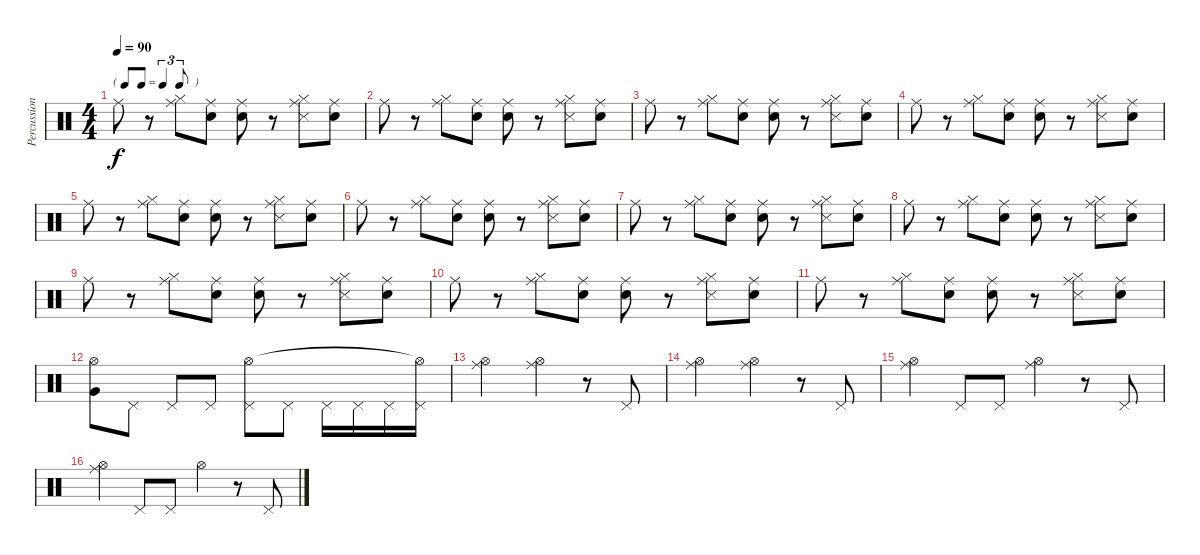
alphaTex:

\track ("Percussion" "Percussion") {instrument percussion}
\staff {score}
\articulation defaults
\ts (4 4)
\tf triplet8th
\tempo 90
\clef neutral
\ks c "Ride (middle)".8{dy f}
r.8 ("Hi-Hat (closed)" "Ride (middle)").8 ("Snare (hit)" "Ride (middle)").8 ("Snare (hit)" "Ride (middle)").8 r.8 ("Hi-Hat (closed)" "Snare (side stick) 3" "Ride (middle)").8 ("Snare (hit)" "Ride (middle)").8 |
"Ride (middle)".8 r.8 ("Hi-Hat (closed)" "Ride (middle)").8 ("Snare (hit)" "Ride (middle)").8 ("Snare (hit)" "Ride (middle)").8 r.8 ("Hi-Hat (closed)" "Snare (side stick) 3" "Ride (middle)").8 ("Snare (hit)" "Ride (middle)").8 |
"Ride (middle)".8 r.8 ("Hi-Hat (closed)" "Ride (middle)").8 ("Snare (hit)" "Ride (middle)").8 ("Snare (hit)" "Ride (middle)").8 r.8 ("Hi-Hat (closed)" "Snare (side stick) 3" "Ride (middle)").8 ("Snare (hit)" "Ride (middle)").8 |
"Ride (middle)".8 r.8 ("Hi-Hat (closed)" "Ride (middle)").8 ("Snare (hit)" "Ride (middle)").8 ("Snare (hit)" "Ride (middle)").8 r.8 ("Hi-Hat (closed)" "Snare (side stick) 3" "Ride (middle)").8 ("Snare (hit)" "Ride (middle)").8 |
"Ride (middle)".8 r.8 ("Hi-Hat (closed)" "Ride (middle)").8 ("Snare (hit)" "Ride (middle)").8 ("Snare (hit)" "Ride (middle)").8 r.8 ("Hi-Hat (closed)" "Snare (side stick) 3" "Ride (middle)").8 ("Snare (hit)" "Ride (middle)").8 |
"Ride (middle)".8 r.8 ("Hi-Hat (closed)" "Ride (middle)").8 ("Snare (hit)" "Ride (middle)").8 ("Snare (hit)" "Ride (middle)").8 r.8 ("Hi-Hat (closed)" "Snare (side stick) 3" "Ride (middle)").8 ("Snare (hit)" "Ride (middle)").8 |
"Ride (middle)".8 r.8 ("Hi-Hat (closed)" "Ride (middle)").8 ("Snare (hit)" "Ride (middle)").8 ("Snare (hit)" "Ride (middle)").8 r.8 ("Hi-Hat (closed)" "Snare (side stick) 3" "Ride (middle)").8 ("Snare (hit)" "Ride (middle)").8 |
"Ride (middle)".8 r.8 ("Hi-Hat (closed)" "Ride (middle)").8 ("Snare (hit)" "Ride (middle)").8 ("Snare (hit)" "Ride (middle)").8 r.8 ("Hi-Hat (closed)" "Snare (side stick) 3" "Ride (middle)").8 ("Snare (hit)" "Ride (middle)").8 |
"Ride (middle)".8 r.8 ("Hi-Hat (closed)" "Ride (middle)").8 ("Snare (hit)" "Ride (middle)").8 ("Snare (hit)" "Ride (middle)").8 r.8 ("Hi-Hat (closed)" "Snare (side stick) 3" "Ride (middle)").8 ("Snare (hit)" "Ride (middle)").8 |
"Ride (middle)".8 r.8 ("Hi-Hat (closed)" "Ride (middle)").8 ("Snare (hit)" "Ride (middle)").8 ("Snare (hit)" "Ride (middle)").8 r.8 ("Hi-Hat (closed)" "Snare (side stick) 3" "Ride (middle)").8 ("Snare (hit)" "Ride (middle)").8 |
"Ride (middle)".8 r.8 ("Hi-Hat (closed)" "Ride (middle)").8 ("Snare (hit)" "Ride (middle)").8 ("Snare (hit)" "Ride (middle)").8 r.8 ("Hi-Hat (closed)" "Snare (side stick) 3" "Ride (middle)").8 ("Snare (hit)" "Ride (middle)").8 |
("Hi-Hat (open)" "Very Low Tom (hit)").8 "Pedal Hi-Hat (hit)".8 "Pedal Hi-Hat (hit)".8 "Pedal Hi-Hat (hit)".8 ("Pedal Hi-Hat (hit)" "Hi-Hat (open)").8 "Pedal Hi-Hat (hit)".8 "Pedal Hi-Hat (hit)".16 "Pedal Hi-Hat (hit)".16 "Pedal Hi-Hat (hit)".16 ("Pedal Hi-Hat (hit)" "Hi-Hat (open)"{t}).16 |
("Ride (middle)" "Hi-Hat (open)").2 ("Ride (middle)" "Hi-Hat (open)").4 r.8 "Pedal Hi-Hat (hit)".8 |
("Ride (middle)" "Hi-Hat (open)").2 ("Ride (middle)" "Hi-Hat (open)").4 r.8 "Pedal Hi-Hat (hit)".8 |
("Ride (middle)" "Hi-Hat (open)").4 "Pedal Hi-Hat (hit)".8 "Pedal Hi-Hat (hit)".8 ("Ride (middle)" "Hi-Hat (open)").4 r.8 "Pedal Hi-Hat (hit)".8 |
("Ride (middle)" "Hi-Hat (open)").4 "Pedal Hi-Hat (hit)".8 "Pedal Hi-Hat (hit)".8 "Hi-Hat (open)".4 r.8 "Pedal Hi-Hat (hit)".8
